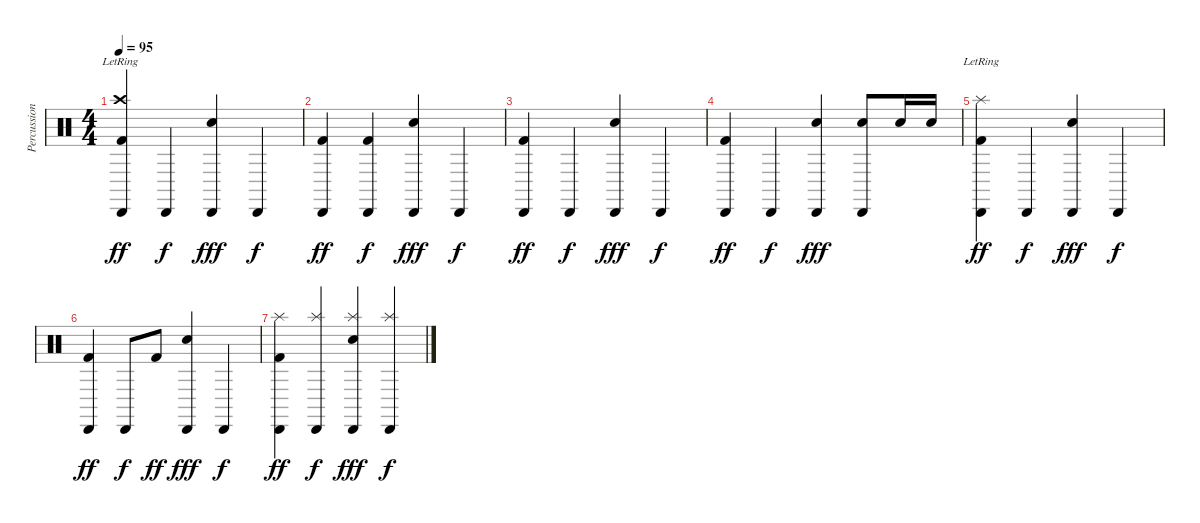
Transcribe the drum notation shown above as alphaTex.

\track ("Percussions" "Percussion") {instrument percussion}
\staff {score}
\articulation defaults
\ts (4 4)
\tempo 95
\clef neutral
\ks c
("Crash high (hit)"{lr} "Kick (hit) 2" "Cabasa (hit)").4{dy ff} "Cabasa (hit)".4{dy f} ("Snare (hit) 2" "Cabasa (hit)").4{dy fff} "Cabasa (hit)".4{dy f} |
("Kick (hit) 2" "Cabasa (hit)").4{dy ff} ("Kick (hit) 2" "Cabasa (hit)").4{dy f} ("Snare (hit) 2" "Cabasa (hit)").4{dy fff} "Cabasa (hit)".4{dy f} |
("Kick (hit) 2" "Cabasa (hit)").4{dy ff} "Cabasa (hit)".4{dy f} ("Snare (hit) 2" "Cabasa (hit)").4{dy fff} "Cabasa (hit)".4{dy f} |
("Kick (hit) 2" "Cabasa (hit)").4{dy ff} "Cabasa (hit)".4{dy f} ("Snare (hit) 2" "Cabasa (hit)").4{dy fff} ("Snare (hit) 2" "Cabasa (hit)").8 "Snare (hit) 2".16 "Snare (hit) 2".16 |
("Splash (hit)"{lr} "Kick (hit) 2" "Cabasa (hit)").4{dy ff} "Cabasa (hit)".4{dy f} ("Snare (hit) 2" "Cabasa (hit)").4{dy fff} "Cabasa (hit)".4{dy f} |
("Kick (hit) 2" "Cabasa (hit)").4{dy ff} "Cabasa (hit)".8{dy f} "Kick (hit) 2".8{dy ff} ("Snare (hit) 2" "Cabasa (hit)").4{dy fff} "Cabasa (hit)".4{dy f} |
("Kick (hit) 2" "Cabasa (hit)" "Splash (hit)").4{dy ff} ("Cabasa (hit)" "Splash (hit)").4{dy f} ("Snare (hit) 2" "Cabasa (hit)" "Splash (hit)").4{dy fff} ("Cabasa (hit)" "Splash (hit)").4{dy f}
